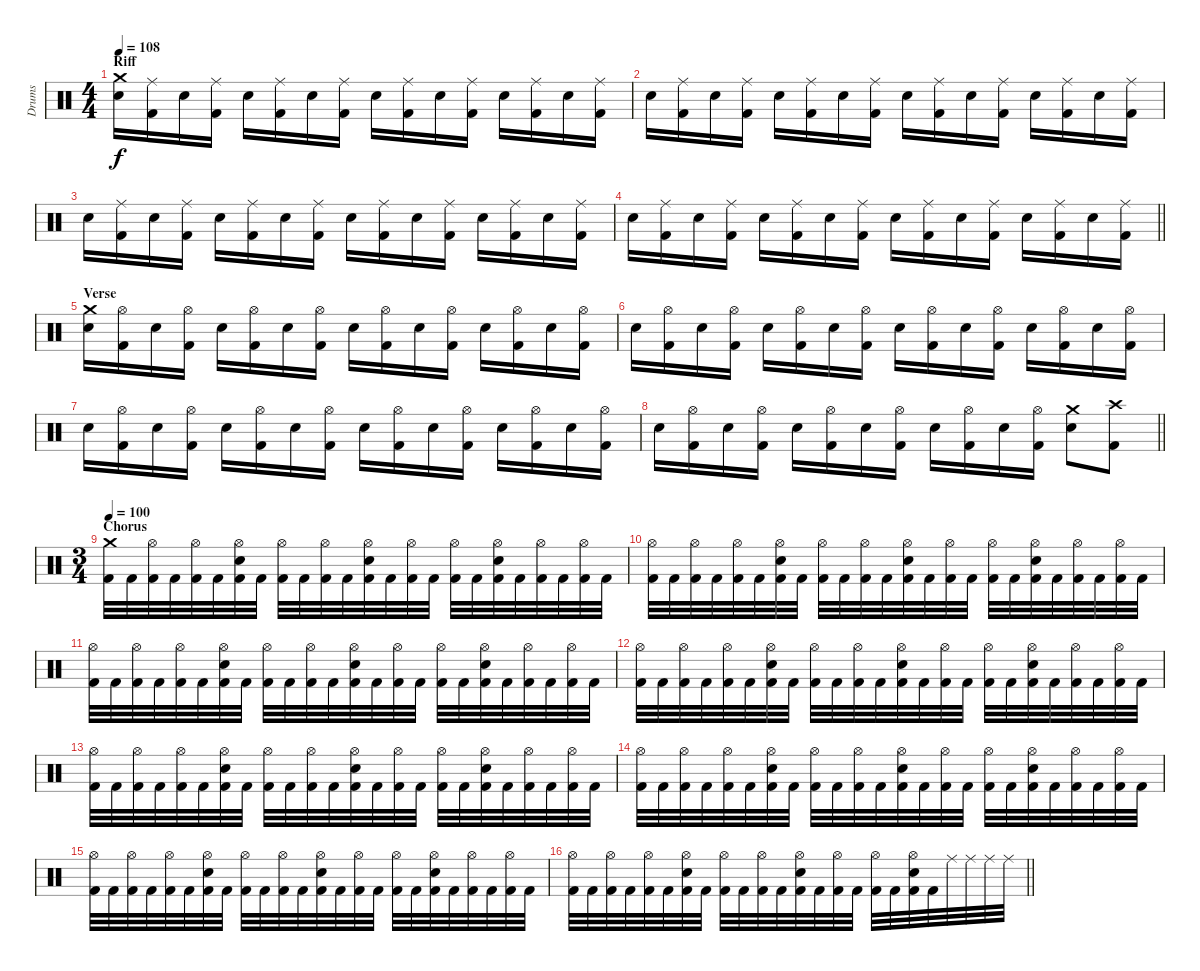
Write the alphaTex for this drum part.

\track ("Drums" "Drums") {instrument percussion}
\staff {score}
\articulation defaults
\ts (4 4)
\section ("" "Riff")
\tempo 108
\clef neutral
\ks c
("Crash medium (hit)" "Electric Snare (hit)").16{dy f} ("Ride (middle)" "Kick (hit) 2").16 "Electric Snare (hit)".16 ("Ride (middle)" "Kick (hit) 2").16 "Electric Snare (hit)".16 ("Ride (middle)" "Kick (hit) 2").16 "Electric Snare (hit)".16 ("Ride (middle)" "Kick (hit) 2").16 "Electric Snare (hit)".16 ("Ride (middle)" "Kick (hit) 2").16 "Electric Snare (hit)".16 ("Ride (middle)" "Kick (hit) 2").16 "Electric Snare (hit)".16 ("Ride (middle)" "Kick (hit) 2").16 "Electric Snare (hit)".16 ("Ride (middle)" "Kick (hit) 2").16 |
"Electric Snare (hit)".16 ("Ride (middle)" "Kick (hit) 2").16 "Electric Snare (hit)".16 ("Ride (middle)" "Kick (hit) 2").16 "Electric Snare (hit)".16 ("Ride (middle)" "Kick (hit) 2").16 "Electric Snare (hit)".16 ("Ride (middle)" "Kick (hit) 2").16 "Electric Snare (hit)".16 ("Ride (middle)" "Kick (hit) 2").16 "Electric Snare (hit)".16 ("Ride (middle)" "Kick (hit) 2").16 "Electric Snare (hit)".16 ("Ride (middle)" "Kick (hit) 2").16 "Electric Snare (hit)".16 ("Ride (middle)" "Kick (hit) 2").16 |
"Electric Snare (hit)".16 ("Ride (middle)" "Kick (hit) 2").16 "Electric Snare (hit)".16 ("Ride (middle)" "Kick (hit) 2").16 "Electric Snare (hit)".16 ("Ride (middle)" "Kick (hit) 2").16 "Electric Snare (hit)".16 ("Ride (middle)" "Kick (hit) 2").16 "Electric Snare (hit)".16 ("Ride (middle)" "Kick (hit) 2").16 "Electric Snare (hit)".16 ("Ride (middle)" "Kick (hit) 2").16 "Electric Snare (hit)".16 ("Ride (middle)" "Kick (hit) 2").16 "Electric Snare (hit)".16 ("Ride (middle)" "Kick (hit) 2").16 |
\barLineRight lightlight "Electric Snare (hit)".16
("Ride (middle)" "Kick (hit) 2").16 "Electric Snare (hit)".16 ("Ride (middle)" "Kick (hit) 2").16 "Electric Snare (hit)".16 ("Ride (middle)" "Kick (hit) 2").16 "Electric Snare (hit)".16 ("Ride (middle)" "Kick (hit) 2").16 "Electric Snare (hit)".16 ("Ride (middle)" "Kick (hit) 2").16 "Electric Snare (hit)".16 ("Ride (middle)" "Kick (hit) 2").16 "Electric Snare (hit)".16 ("Ride (middle)" "Kick (hit) 2").16 "Electric Snare (hit)".16 ("Ride (middle)" "Kick (hit) 2").16 |
\section ("" "Verse")
("Crash medium (hit)" "Electric Snare (hit)").16 ("Hi-Hat (open)" "Kick (hit) 2").16 "Electric Snare (hit)".16 ("Hi-Hat (open)" "Kick (hit) 2").16 "Electric Snare (hit)".16 ("Hi-Hat (open)" "Kick (hit) 2").16 "Electric Snare (hit)".16 ("Hi-Hat (open)" "Kick (hit) 2").16 "Electric Snare (hit)".16 ("Hi-Hat (open)" "Kick (hit) 2").16 "Electric Snare (hit)".16 ("Hi-Hat (open)" "Kick (hit) 2").16 "Electric Snare (hit)".16 ("Hi-Hat (open)" "Kick (hit) 2").16 "Electric Snare (hit)".16 ("Hi-Hat (open)" "Kick (hit) 2").16 |
"Electric Snare (hit)".16 ("Hi-Hat (open)" "Kick (hit) 2").16 "Electric Snare (hit)".16 ("Hi-Hat (open)" "Kick (hit) 2").16 "Electric Snare (hit)".16 ("Hi-Hat (open)" "Kick (hit) 2").16 "Electric Snare (hit)".16 ("Hi-Hat (open)" "Kick (hit) 2").16 "Electric Snare (hit)".16 ("Hi-Hat (open)" "Kick (hit) 2").16 "Electric Snare (hit)".16 ("Hi-Hat (open)" "Kick (hit) 2").16 "Electric Snare (hit)".16 ("Hi-Hat (open)" "Kick (hit) 2").16 "Electric Snare (hit)".16 ("Hi-Hat (open)" "Kick (hit) 2").16 |
"Electric Snare (hit)".16 ("Hi-Hat (open)" "Kick (hit) 2").16 "Electric Snare (hit)".16 ("Hi-Hat (open)" "Kick (hit) 2").16 "Electric Snare (hit)".16 ("Hi-Hat (open)" "Kick (hit) 2").16 "Electric Snare (hit)".16 ("Hi-Hat (open)" "Kick (hit) 2").16 "Electric Snare (hit)".16 ("Hi-Hat (open)" "Kick (hit) 2").16 "Electric Snare (hit)".16 ("Hi-Hat (open)" "Kick (hit) 2").16 "Electric Snare (hit)".16 ("Hi-Hat (open)" "Kick (hit) 2").16 "Electric Snare (hit)".16 ("Hi-Hat (open)" "Kick (hit) 2").16 |
\barLineRight lightlight "Electric Snare (hit)".16
("Hi-Hat (open)" "Kick (hit) 2").16 "Electric Snare (hit)".16 ("Hi-Hat (open)" "Kick (hit) 2").16 "Electric Snare (hit)".16 ("Hi-Hat (open)" "Kick (hit) 2").16 "Electric Snare (hit)".16 ("Hi-Hat (open)" "Kick (hit) 2").16 "Electric Snare (hit)".16 ("Hi-Hat (open)" "Kick (hit) 2").16 "Electric Snare (hit)".16 ("Hi-Hat (open)" "Kick (hit) 2").16 ("Crash medium (hit)" "Electric Snare (hit)").8 ("Crash high (hit)" "Kick (hit) 2").8 |
\ts (3 4)
\section ("" "Chorus")
\tempo 100
("Crash medium (hit)" "Kick (hit) 2").32 "Kick (hit) 2".32 ("Hi-Hat (open)" "Kick (hit) 2").32 "Kick (hit) 2".32 ("Hi-Hat (open)" "Kick (hit) 2").32 "Kick (hit) 2".32 ("Hi-Hat (open)" "Electric Snare (hit)" "Kick (hit) 2").32 "Kick (hit) 2".32 ("Hi-Hat (open)" "Kick (hit) 2").32 "Kick (hit) 2".32 ("Hi-Hat (open)" "Kick (hit) 2").32 "Kick (hit) 2".32 ("Hi-Hat (open)" "Electric Snare (hit)" "Kick (hit) 2").32 "Kick (hit) 2".32 ("Hi-Hat (open)" "Kick (hit) 2").32 "Kick (hit) 2".32 ("Hi-Hat (open)" "Kick (hit) 2").32 "Kick (hit) 2".32 ("Hi-Hat (open)" "Electric Snare (hit)" "Kick (hit) 2").32 "Kick (hit) 2".32 ("Hi-Hat (open)" "Kick (hit) 2").32 "Kick (hit) 2".32 ("Hi-Hat (open)" "Kick (hit) 2").32 "Kick (hit) 2".32 |
("Hi-Hat (open)" "Kick (hit) 2").32 "Kick (hit) 2".32 ("Hi-Hat (open)" "Kick (hit) 2").32 "Kick (hit) 2".32 ("Hi-Hat (open)" "Kick (hit) 2").32 "Kick (hit) 2".32 ("Hi-Hat (open)" "Electric Snare (hit)" "Kick (hit) 2").32 "Kick (hit) 2".32 ("Hi-Hat (open)" "Kick (hit) 2").32 "Kick (hit) 2".32 ("Hi-Hat (open)" "Kick (hit) 2").32 "Kick (hit) 2".32 ("Hi-Hat (open)" "Electric Snare (hit)" "Kick (hit) 2").32 "Kick (hit) 2".32 ("Hi-Hat (open)" "Kick (hit) 2").32 "Kick (hit) 2".32 ("Hi-Hat (open)" "Kick (hit) 2").32 "Kick (hit) 2".32 ("Hi-Hat (open)" "Electric Snare (hit)" "Kick (hit) 2").32 "Kick (hit) 2".32 ("Hi-Hat (open)" "Kick (hit) 2").32 "Kick (hit) 2".32 ("Hi-Hat (open)" "Kick (hit) 2").32 "Kick (hit) 2".32 |
("Hi-Hat (open)" "Kick (hit) 2").32 "Kick (hit) 2".32 ("Hi-Hat (open)" "Kick (hit) 2").32 "Kick (hit) 2".32 ("Hi-Hat (open)" "Kick (hit) 2").32 "Kick (hit) 2".32 ("Hi-Hat (open)" "Electric Snare (hit)" "Kick (hit) 2").32 "Kick (hit) 2".32 ("Hi-Hat (open)" "Kick (hit) 2").32 "Kick (hit) 2".32 ("Hi-Hat (open)" "Kick (hit) 2").32 "Kick (hit) 2".32 ("Hi-Hat (open)" "Electric Snare (hit)" "Kick (hit) 2").32 "Kick (hit) 2".32 ("Hi-Hat (open)" "Kick (hit) 2").32 "Kick (hit) 2".32 ("Hi-Hat (open)" "Kick (hit) 2").32 "Kick (hit) 2".32 ("Hi-Hat (open)" "Electric Snare (hit)" "Kick (hit) 2").32 "Kick (hit) 2".32 ("Hi-Hat (open)" "Kick (hit) 2").32 "Kick (hit) 2".32 ("Hi-Hat (open)" "Kick (hit) 2").32 "Kick (hit) 2".32 |
("Hi-Hat (open)" "Kick (hit) 2").32 "Kick (hit) 2".32 ("Hi-Hat (open)" "Kick (hit) 2").32 "Kick (hit) 2".32 ("Hi-Hat (open)" "Kick (hit) 2").32 "Kick (hit) 2".32 ("Hi-Hat (open)" "Electric Snare (hit)" "Kick (hit) 2").32 "Kick (hit) 2".32 ("Hi-Hat (open)" "Kick (hit) 2").32 "Kick (hit) 2".32 ("Hi-Hat (open)" "Kick (hit) 2").32 "Kick (hit) 2".32 ("Hi-Hat (open)" "Electric Snare (hit)" "Kick (hit) 2").32 "Kick (hit) 2".32 ("Hi-Hat (open)" "Kick (hit) 2").32 "Kick (hit) 2".32 ("Hi-Hat (open)" "Kick (hit) 2").32 "Kick (hit) 2".32 ("Hi-Hat (open)" "Electric Snare (hit)" "Kick (hit) 2").32 "Kick (hit) 2".32 ("Hi-Hat (open)" "Kick (hit) 2").32 "Kick (hit) 2".32 ("Hi-Hat (open)" "Kick (hit) 2").32 "Kick (hit) 2".32 |
("Hi-Hat (open)" "Kick (hit) 2").32 "Kick (hit) 2".32 ("Hi-Hat (open)" "Kick (hit) 2").32 "Kick (hit) 2".32 ("Hi-Hat (open)" "Kick (hit) 2").32 "Kick (hit) 2".32 ("Hi-Hat (open)" "Electric Snare (hit)" "Kick (hit) 2").32 "Kick (hit) 2".32 ("Hi-Hat (open)" "Kick (hit) 2").32 "Kick (hit) 2".32 ("Hi-Hat (open)" "Kick (hit) 2").32 "Kick (hit) 2".32 ("Hi-Hat (open)" "Electric Snare (hit)" "Kick (hit) 2").32 "Kick (hit) 2".32 ("Hi-Hat (open)" "Kick (hit) 2").32 "Kick (hit) 2".32 ("Hi-Hat (open)" "Kick (hit) 2").32 "Kick (hit) 2".32 ("Hi-Hat (open)" "Electric Snare (hit)" "Kick (hit) 2").32 "Kick (hit) 2".32 ("Hi-Hat (open)" "Kick (hit) 2").32 "Kick (hit) 2".32 ("Hi-Hat (open)" "Kick (hit) 2").32 "Kick (hit) 2".32 |
("Hi-Hat (open)" "Kick (hit) 2").32 "Kick (hit) 2".32 ("Hi-Hat (open)" "Kick (hit) 2").32 "Kick (hit) 2".32 ("Hi-Hat (open)" "Kick (hit) 2").32 "Kick (hit) 2".32 ("Hi-Hat (open)" "Electric Snare (hit)" "Kick (hit) 2").32 "Kick (hit) 2".32 ("Hi-Hat (open)" "Kick (hit) 2").32 "Kick (hit) 2".32 ("Hi-Hat (open)" "Kick (hit) 2").32 "Kick (hit) 2".32 ("Hi-Hat (open)" "Electric Snare (hit)" "Kick (hit) 2").32 "Kick (hit) 2".32 ("Hi-Hat (open)" "Kick (hit) 2").32 "Kick (hit) 2".32 ("Hi-Hat (open)" "Kick (hit) 2").32 "Kick (hit) 2".32 ("Hi-Hat (open)" "Electric Snare (hit)" "Kick (hit) 2").32 "Kick (hit) 2".32 ("Hi-Hat (open)" "Kick (hit) 2").32 "Kick (hit) 2".32 ("Hi-Hat (open)" "Kick (hit) 2").32 "Kick (hit) 2".32 |
("Hi-Hat (open)" "Kick (hit) 2").32 "Kick (hit) 2".32 ("Hi-Hat (open)" "Kick (hit) 2").32 "Kick (hit) 2".32 ("Hi-Hat (open)" "Kick (hit) 2").32 "Kick (hit) 2".32 ("Hi-Hat (open)" "Electric Snare (hit)" "Kick (hit) 2").32 "Kick (hit) 2".32 ("Hi-Hat (open)" "Kick (hit) 2").32 "Kick (hit) 2".32 ("Hi-Hat (open)" "Kick (hit) 2").32 "Kick (hit) 2".32 ("Hi-Hat (open)" "Electric Snare (hit)" "Kick (hit) 2").32 "Kick (hit) 2".32 ("Hi-Hat (open)" "Kick (hit) 2").32 "Kick (hit) 2".32 ("Hi-Hat (open)" "Kick (hit) 2").32 "Kick (hit) 2".32 ("Hi-Hat (open)" "Electric Snare (hit)" "Kick (hit) 2").32 "Kick (hit) 2".32 ("Hi-Hat (open)" "Kick (hit) 2").32 "Kick (hit) 2".32 ("Hi-Hat (open)" "Kick (hit) 2").32 "Kick (hit) 2".32 |
\barLineRight lightlight
("Hi-Hat (open)" "Kick (hit) 2").32 "Kick (hit) 2".32 ("Hi-Hat (open)" "Kick (hit) 2").32 "Kick (hit) 2".32 ("Hi-Hat (open)" "Kick (hit) 2").32 "Kick (hit) 2".32 ("Hi-Hat (open)" "Electric Snare (hit)" "Kick (hit) 2").32 "Kick (hit) 2".32 ("Hi-Hat (open)" "Kick (hit) 2").32 "Kick (hit) 2".32 ("Hi-Hat (open)" "Kick (hit) 2").32 "Kick (hit) 2".32 ("Hi-Hat (open)" "Electric Snare (hit)" "Kick (hit) 2").32 "Kick (hit) 2".32 ("Hi-Hat (open)" "Kick (hit) 2").32 "Kick (hit) 2".32 ("Hi-Hat (open)" "Kick (hit) 2").32 "Kick (hit) 2".32 ("Hi-Hat (open)" "Electric Snare (hit)" "Kick (hit) 2").32 "Kick (hit) 2".32 "Ride (middle)".32 "Ride (middle)".32 "Ride (middle)".32 "Ride (middle)".32
